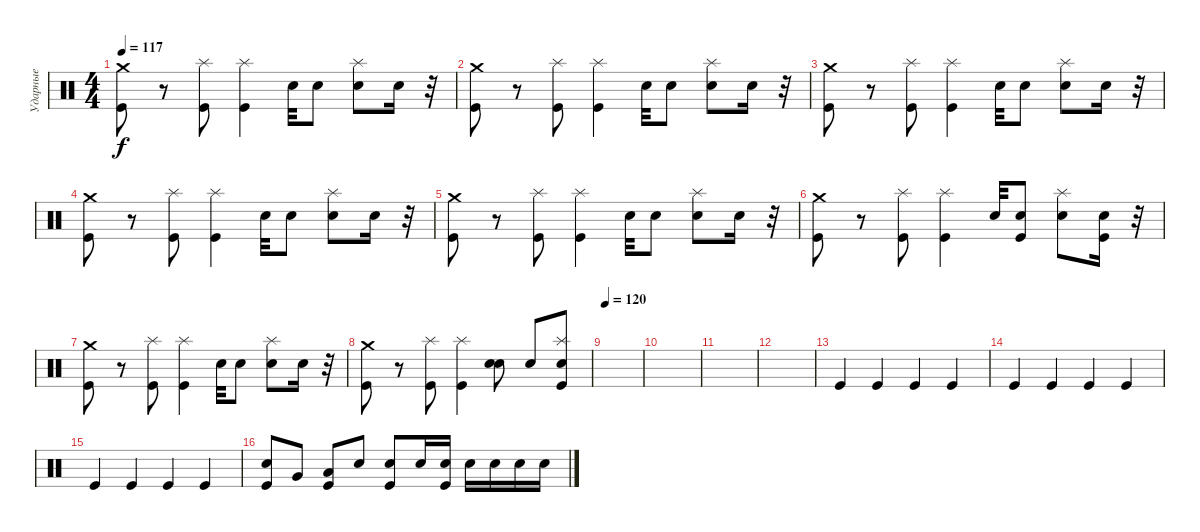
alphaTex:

\track ("Ударные" "Ударные") {instrument percussion}
\staff {score}
\articulation defaults
\ts (4 4)
\tempo 117
\clef neutral
\ks c
("Crash medium (hit)" "Kick (hit)").8{dy f} r.8 ("Splash (hit)" "Kick (hit)").8 ("Splash (hit)" "Kick (hit)").4 "Snare (hit) 2".32 "Snare (hit) 2".8 ("Splash (hit)" "Electric Snare (hit)").8 "Snare (hit) 2".16 r.32 |
("Crash medium (hit)" "Kick (hit)").8 r.8 ("Splash (hit)" "Kick (hit)").8 ("Splash (hit)" "Kick (hit)").4 "Snare (hit) 2".32 "Snare (hit) 2".8 ("Splash (hit)" "Electric Snare (hit)").8 "Snare (hit) 2".16 r.32 |
("Crash medium (hit)" "Kick (hit)").8 r.8 ("Splash (hit)" "Kick (hit)").8 ("Splash (hit)" "Kick (hit)").4 "Snare (hit) 2".32 "Snare (hit) 2".8 ("Splash (hit)" "Electric Snare (hit)").8 "Snare (hit) 2".16 r.32 |
("Crash medium (hit)" "Kick (hit)").8 r.8 ("Splash (hit)" "Kick (hit)").8 ("Splash (hit)" "Kick (hit)").4 "Snare (hit) 2".32 "Snare (hit) 2".8 ("Splash (hit)" "Electric Snare (hit)").8 "Snare (hit) 2".16 r.32 |
("Crash medium (hit)" "Kick (hit)").8 r.8 ("Splash (hit)" "Kick (hit)").8 ("Splash (hit)" "Kick (hit)").4 "Snare (hit) 2".32 "Snare (hit) 2".8 ("Splash (hit)" "Electric Snare (hit)").8 "Snare (hit) 2".16 r.32 |
("Crash medium (hit)" "Kick (hit)").8 r.8 ("Splash (hit)" "Kick (hit)").8 ("Splash (hit)" "Kick (hit)").4 "Snare (hit) 2".32 ("Snare (hit) 2" "Kick (hit)").8 ("Splash (hit)" "Electric Snare (hit)").8 ("Snare (hit) 2" "Kick (hit)").16 r.32 |
("Crash medium (hit)" "Kick (hit)").8 r.8 ("Splash (hit)" "Kick (hit)").8 ("Splash (hit)" "Kick (hit)").4 "Snare (hit) 2".32 "Snare (hit) 2".8 ("Splash (hit)" "Electric Snare (hit)").8 "Snare (hit) 2".16 r.32 |
("Crash medium (hit)" "Kick (hit)").8 r.8 ("Splash (hit)" "Kick (hit)").8 ("Splash (hit)" "Kick (hit)").4 ("Snare (hit) 2" "Snare (hit) 2").8 "Snare (hit) 2".8 ("Splash (hit)" "Snare (hit) 2" "Kick (hit)").8 |
\tempo 120
|
|
|
|
"Kick (hit)".4 "Kick (hit)".4 "Kick (hit)".4 "Kick (hit)".4 |
"Kick (hit)".4 "Kick (hit)".4 "Kick (hit)".4 "Kick (hit)".4 |
"Kick (hit)".4 "Kick (hit)".4 "Kick (hit)".4 "Kick (hit)".4 |
("Snare (hit) 2" "Kick (hit)").8 "Very Low Tom (hit)".8 ("Low Floor Tom (hit)" "Kick (hit)").8 "Electric Snare (hit)".8 ("Snare (hit) 2" "Kick (hit)").8 "Snare (hit) 2".16 ("Snare (hit) 2" "Kick (hit)").16 "Snare (hit) 2".16 "Electric Snare (hit)".16 "Electric Snare (hit)".16 "Snare (hit) 2".16
